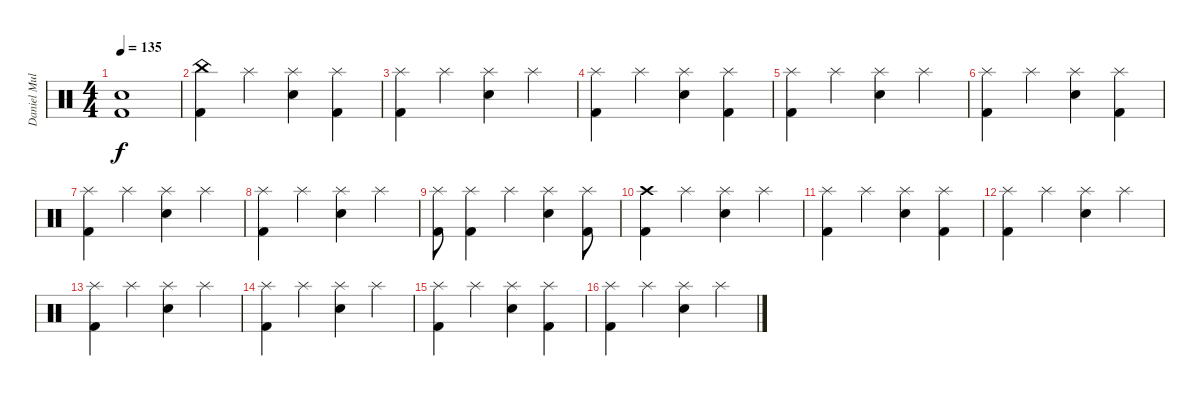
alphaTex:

\track ("Daniel Mullback" "Daniel Mul") {instrument percussion}
\staff {score}
\articulation defaults
\ts (4 4)
\tempo 135
\clef neutral
\ks c
("Snare (hit) 2" "Kick (hit) 2").1{dy f} |
("China (hit)" "Kick (hit) 2").4 "Splash (hit)".4 ("Splash (hit)" "Snare (hit) 2").4 ("Splash (hit)" "Kick (hit) 2").4 |
("Splash (hit)" "Kick (hit) 2").4 "Splash (hit)".4 ("Splash (hit)" "Snare (hit) 2").4 "Splash (hit)".4 |
("Splash (hit)" "Kick (hit) 2").4 "Splash (hit)".4 ("Splash (hit)" "Snare (hit) 2").4 ("Splash (hit)" "Kick (hit) 2").4 |
("Splash (hit)" "Kick (hit) 2").4 "Splash (hit)".4 ("Splash (hit)" "Snare (hit) 2").4 "Splash (hit)".4 |
("Splash (hit)" "Kick (hit) 2").4 "Splash (hit)".4 ("Splash (hit)" "Snare (hit) 2").4 ("Splash (hit)" "Kick (hit) 2").4 |
("Splash (hit)" "Kick (hit) 2").4 "Splash (hit)".4 ("Splash (hit)" "Snare (hit) 2").4 "Splash (hit)".4 |
("Splash (hit)" "Kick (hit) 2").4 "Splash (hit)".4 ("Splash (hit)" "Snare (hit) 2").4 "Splash (hit)".4 |
("Splash (hit)" "Kick (hit) 2").8 ("Splash (hit)" "Kick (hit) 2").4 "Splash (hit)".4 ("Splash (hit)" "Snare (hit) 2").4 ("Splash (hit)" "Kick (hit) 2").8 |
("Crash high (hit)" "Kick (hit) 2").4 "Splash (hit)".4 ("Splash (hit)" "Snare (hit) 2").4 "Splash (hit)".4 |
("Splash (hit)" "Kick (hit) 2").4 "Splash (hit)".4 ("Splash (hit)" "Snare (hit) 2").4 ("Splash (hit)" "Kick (hit) 2").4 |
("Splash (hit)" "Kick (hit) 2").4 "Splash (hit)".4 ("Splash (hit)" "Snare (hit) 2").4 "Splash (hit)".4 |
("Splash (hit)" "Kick (hit) 2").4 "Splash (hit)".4 ("Splash (hit)" "Snare (hit) 2").4 "Splash (hit)".4 |
("Splash (hit)" "Kick (hit) 2").4 "Splash (hit)".4 ("Splash (hit)" "Snare (hit) 2").4 "Splash (hit)".4 |
("Splash (hit)" "Kick (hit) 2").4 "Splash (hit)".4 ("Splash (hit)" "Snare (hit) 2").4 ("Splash (hit)" "Kick (hit) 2").4 |
("Splash (hit)" "Kick (hit) 2").4 "Splash (hit)".4 ("Splash (hit)" "Snare (hit) 2").4 "Splash (hit)".4
